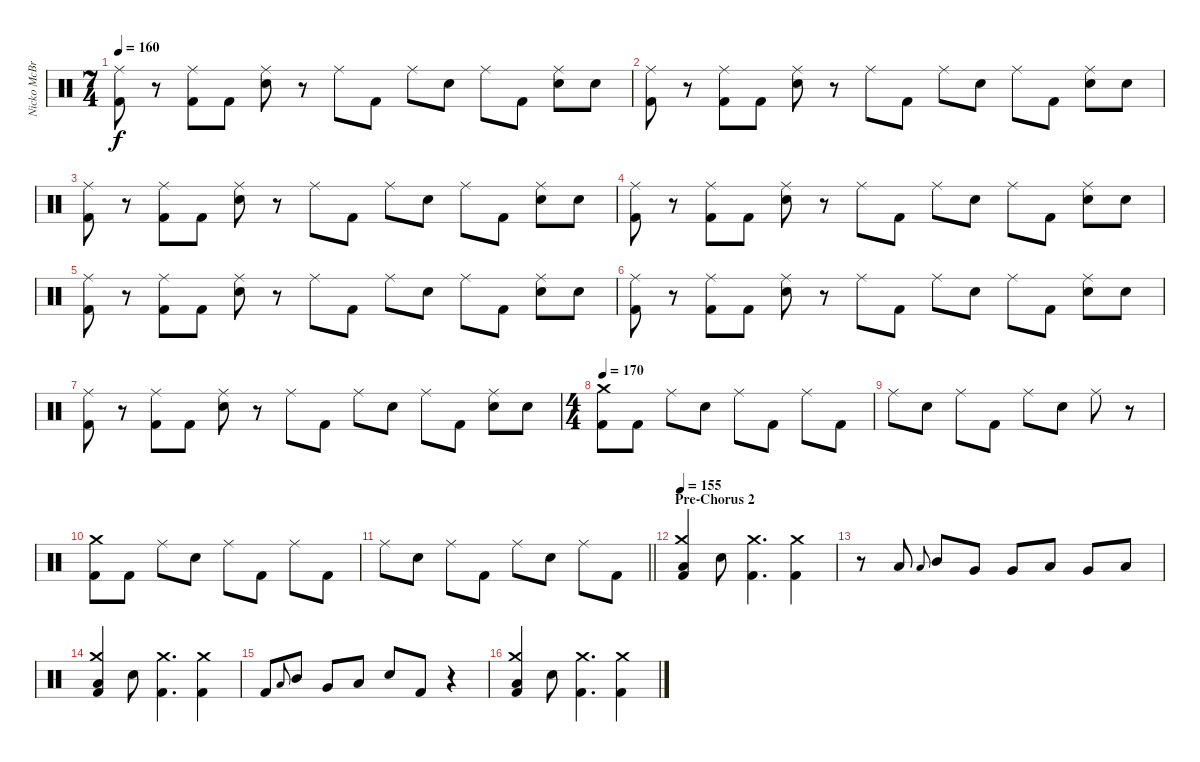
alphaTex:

\track ("Nicko McBrain" "Nicko McBr") {instrument percussion}
\staff {score}
\articulation defaults
\ts (7 4)
\tempo 160
\clef neutral
\ks c
("Ride (middle)" "Kick (hit) 2").8{dy f} r.8 ("Ride (middle)" "Kick (hit) 2").8 "Kick (hit) 2".8 ("Ride (middle)" "Snare (hit) 2").8 r.8 "Ride (middle)".8 "Kick (hit) 2".8 "Ride (middle)".8 "Snare (hit) 2".8 "Ride (middle)".8 "Kick (hit) 2".8 ("Ride (middle)" "Snare (hit) 2").8 "Snare (hit) 2".8 |
("Ride (middle)" "Kick (hit) 2").8 r.8 ("Ride (middle)" "Kick (hit) 2").8 "Kick (hit) 2".8 ("Ride (middle)" "Snare (hit) 2").8 r.8 "Ride (middle)".8 "Kick (hit) 2".8 "Ride (middle)".8 "Snare (hit) 2".8 "Ride (middle)".8 "Kick (hit) 2".8 ("Ride (middle)" "Snare (hit) 2").8 "Snare (hit) 2".8 |
("Ride (middle)" "Kick (hit) 2").8 r.8 ("Ride (middle)" "Kick (hit) 2").8 "Kick (hit) 2".8 ("Ride (middle)" "Snare (hit) 2").8 r.8 "Ride (middle)".8 "Kick (hit) 2".8 "Ride (middle)".8 "Snare (hit) 2".8 "Ride (middle)".8 "Kick (hit) 2".8 ("Ride (middle)" "Snare (hit) 2").8 "Snare (hit) 2".8 |
("Ride (middle)" "Kick (hit) 2").8 r.8 ("Ride (middle)" "Kick (hit) 2").8 "Kick (hit) 2".8 ("Ride (middle)" "Snare (hit) 2").8 r.8 "Ride (middle)".8 "Kick (hit) 2".8 "Ride (middle)".8 "Snare (hit) 2".8 "Ride (middle)".8 "Kick (hit) 2".8 ("Ride (middle)" "Snare (hit) 2").8 "Snare (hit) 2".8 |
("Ride (middle)" "Kick (hit) 2").8 r.8 ("Ride (middle)" "Kick (hit) 2").8 "Kick (hit) 2".8 ("Ride (middle)" "Snare (hit) 2").8 r.8 "Ride (middle)".8 "Kick (hit) 2".8 "Ride (middle)".8 "Snare (hit) 2".8 "Ride (middle)".8 "Kick (hit) 2".8 ("Ride (middle)" "Snare (hit) 2").8 "Snare (hit) 2".8 |
("Ride (middle)" "Kick (hit) 2").8 r.8 ("Ride (middle)" "Kick (hit) 2").8 "Kick (hit) 2".8 ("Ride (middle)" "Snare (hit) 2").8 r.8 "Ride (middle)".8 "Kick (hit) 2".8 "Ride (middle)".8 "Snare (hit) 2".8 "Ride (middle)".8 "Kick (hit) 2".8 ("Ride (middle)" "Snare (hit) 2").8 "Snare (hit) 2".8 |
("Ride (middle)" "Kick (hit) 2").8 r.8 ("Ride (middle)" "Kick (hit) 2").8 "Kick (hit) 2".8 ("Ride (middle)" "Snare (hit) 2").8 r.8 "Ride (middle)".8 "Kick (hit) 2".8 "Ride (middle)".8 "Snare (hit) 2".8 "Ride (middle)".8 "Kick (hit) 2".8 ("Ride (middle)" "Snare (hit) 2").8 "Snare (hit) 2".8 |
\ts (4 4)
\tempo 170
("Crash medium (hit)" "Kick (hit) 2").8 "Kick (hit) 2".8 "Ride (middle)".8 "Snare (hit) 2".8 "Ride (middle)".8 "Kick (hit) 2".8 "Ride (middle)".8 "Kick (hit) 2".8 |
"Ride (middle)".8 "Snare (hit) 2".8 "Ride (middle)".8 "Kick (hit) 2".8 "Ride (middle)".8 "Snare (hit) 2".8 "Ride (middle)".8 r.8 |
("Crash medium (hit)" "Kick (hit) 2").8 "Kick (hit) 2".8 "Ride (middle)".8 "Snare (hit) 2".8 "Ride (middle)".8 "Kick (hit) 2".8 "Ride (middle)".8 "Kick (hit) 2".8 |
\barLineRight lightlight "Ride (middle)".8 "Snare (hit) 2".8 "Ride (middle)".8 "Kick (hit) 2".8 "Ride (middle)".8 "Snare (hit) 2".8 "Ride (middle)".8 "Kick (hit) 2".8
|
\section ("" "Pre-Chorus 2")
\tempo 155
("Crash medium (hit)" "Low Floor Tom (hit)" "Kick (hit) 2").4 "Snare (hit) 2".8 ("Crash medium (hit)" "Kick (hit) 2").4{d} ("Crash medium (hit)" "Kick (hit) 2").4 |
r.8 "Low Floor Tom (hit)".8 "Low Tom (hit)".8{gr onbeat} "Mid Tom (hit)".8 "Very Low Tom (hit)".8 "Very Low Tom (hit)".8 "Low Tom (hit)".8 "Very Low Tom (hit)".8 "Low Floor Tom (hit)".8 |
("Crash medium (hit)" "Low Floor Tom (hit)" "Kick (hit) 2").4 "Snare (hit) 2".8 ("Crash medium (hit)" "Kick (hit) 2").4{d} ("Crash medium (hit)" "Kick (hit) 2").4 |
"Kick (hit) 2".8 "Low Tom (hit)".8{gr onbeat} "Mid Tom (hit)".8 "Very Low Tom (hit)".8 "Low Tom (hit)".8 "Snare (hit) 2".8 "Kick (hit) 2".8 r.4 |
("Crash medium (hit)" "Low Floor Tom (hit)" "Kick (hit) 2").4 "Snare (hit) 2".8 ("Crash medium (hit)" "Kick (hit) 2").4{d} ("Crash medium (hit)" "Kick (hit) 2").4
